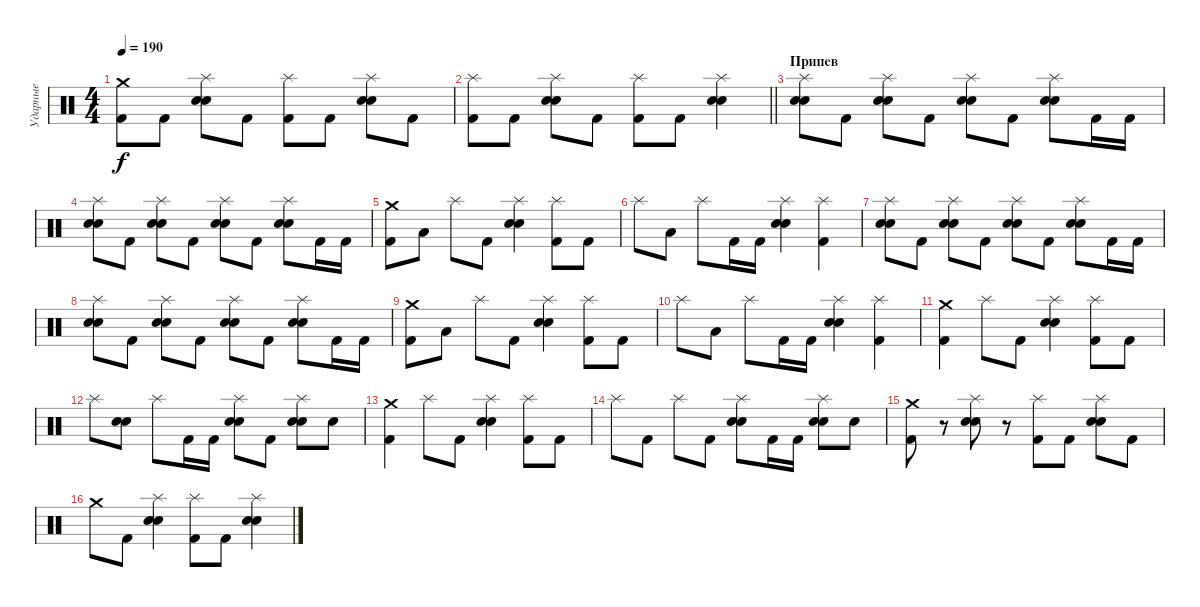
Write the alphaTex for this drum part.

\track ("Ударные" "Ударные") {instrument percussion}
\staff {score}
\articulation defaults
\ts (4 4)
\tempo 190
\clef neutral
\ks c
("Crash medium (hit)" "Kick (hit) 2").8{dy f} "Kick (hit) 2".8 ("Splash (hit)" "Electric Snare (hit)" "Snare (hit) 2").8 "Kick (hit) 2".8 ("Splash (hit)" "Kick (hit) 2").8 "Kick (hit) 2".8 ("Splash (hit)" "Electric Snare (hit)" "Snare (hit) 2").8 "Kick (hit) 2".8 |
\barLineRight lightlight
("Splash (hit)" "Kick (hit) 2").8 "Kick (hit) 2".8 ("Splash (hit)" "Electric Snare (hit)" "Snare (hit) 2").8 "Kick (hit) 2".8 ("Splash (hit)" "Kick (hit) 2").8 "Kick (hit) 2".8 ("Splash (hit)" "Electric Snare (hit)" "Snare (hit) 2").4 |
\section ("" "Припев")
("Splash (hit)" "Electric Snare (hit)" "Snare (hit) 2").8 "Kick (hit) 2".8 ("Splash (hit)" "Electric Snare (hit)" "Snare (hit) 2").8 "Kick (hit) 2".8 ("Splash (hit)" "Electric Snare (hit)" "Snare (hit) 2").8 "Kick (hit) 2".8 ("Splash (hit)" "Electric Snare (hit)" "Snare (hit) 2").8 "Kick (hit) 2".16 "Kick (hit) 2".16 |
("Splash (hit)" "Electric Snare (hit)" "Snare (hit) 2").8 "Kick (hit) 2".8 ("Splash (hit)" "Electric Snare (hit)" "Snare (hit) 2").8 "Kick (hit) 2".8 ("Splash (hit)" "Electric Snare (hit)" "Snare (hit) 2").8 "Kick (hit) 2".8 ("Splash (hit)" "Electric Snare (hit)" "Snare (hit) 2").8 "Kick (hit) 2".16 "Kick (hit) 2".16 |
("Crash medium (hit)" "Kick (hit) 2").8 "Low Tom (hit)".8 "Splash (hit)".8 "Kick (hit) 2".8 ("Splash (hit)" "Electric Snare (hit)" "Snare (hit) 2").4 ("Splash (hit)" "Kick (hit) 2").8 "Kick (hit) 2".8 |
"Splash (hit)".8 "Low Tom (hit)".8 "Splash (hit)".8 "Kick (hit) 2".16 "Kick (hit) 2".16 ("Splash (hit)" "Electric Snare (hit)" "Snare (hit) 2").4 ("Splash (hit)" "Kick (hit) 2").4 |
("Splash (hit)" "Electric Snare (hit)" "Snare (hit) 2").8 "Kick (hit) 2".8 ("Splash (hit)" "Electric Snare (hit)" "Snare (hit) 2").8 "Kick (hit) 2".8 ("Splash (hit)" "Electric Snare (hit)" "Snare (hit) 2").8 "Kick (hit) 2".8 ("Splash (hit)" "Electric Snare (hit)" "Snare (hit) 2").8 "Kick (hit) 2".16 "Kick (hit) 2".16 |
("Splash (hit)" "Electric Snare (hit)" "Snare (hit) 2").8 "Kick (hit) 2".8 ("Splash (hit)" "Electric Snare (hit)" "Snare (hit) 2").8 "Kick (hit) 2".8 ("Splash (hit)" "Electric Snare (hit)" "Snare (hit) 2").8 "Kick (hit) 2".8 ("Splash (hit)" "Electric Snare (hit)" "Snare (hit) 2").8 "Kick (hit) 2".16 "Kick (hit) 2".16 |
("Crash medium (hit)" "Kick (hit) 2").8 "Low Tom (hit)".8 "Splash (hit)".8 "Kick (hit) 2".8 ("Splash (hit)" "Electric Snare (hit)" "Snare (hit) 2").4 ("Splash (hit)" "Kick (hit) 2").8 "Kick (hit) 2".8 |
"Splash (hit)".8 "Low Tom (hit)".8 "Splash (hit)".8 "Kick (hit) 2".16 "Kick (hit) 2".16 ("Splash (hit)" "Electric Snare (hit)" "Snare (hit) 2").4 ("Splash (hit)" "Kick (hit) 2").4 |
("Crash medium (hit)" "Kick (hit) 2").4 "Splash (hit)".8 "Kick (hit) 2".8 ("Splash (hit)" "Electric Snare (hit)" "Snare (hit) 2").4 ("Splash (hit)" "Kick (hit) 2").8 "Kick (hit) 2".8 |
"Splash (hit)".8 ("Electric Snare (hit)" "Snare (hit) 2").8 "Splash (hit)".8 "Kick (hit) 2".16 "Kick (hit) 2".16 ("Splash (hit)" "Electric Snare (hit)" "Snare (hit) 2").8 "Kick (hit) 2".8 ("Splash (hit)" "Electric Snare (hit)" "Snare (hit) 2").8 "Electric Snare (hit)".8 |
("Crash medium (hit)" "Kick (hit) 2").4 "Splash (hit)".8 "Kick (hit) 2".8 ("Splash (hit)" "Electric Snare (hit)" "Snare (hit) 2").4 ("Splash (hit)" "Kick (hit) 2").8 "Kick (hit) 2".8 |
"Splash (hit)".8 "Kick (hit) 2".8 "Splash (hit)".8 "Kick (hit) 2".8 ("Splash (hit)" "Electric Snare (hit)" "Snare (hit) 2").8 "Kick (hit) 2".16 "Kick (hit) 2".16 ("Splash (hit)" "Electric Snare (hit)" "Snare (hit) 2").8 "Electric Snare (hit)".8 |
("Crash medium (hit)" "Kick (hit) 2").8 r.8 ("Splash (hit)" "Electric Snare (hit)" "Snare (hit) 2").8 r.8 ("Splash (hit)" "Kick (hit) 2").8 "Kick (hit) 2".8 ("Splash (hit)" "Electric Snare (hit)" "Snare (hit) 2").8 "Kick (hit) 2".8 |
"Crash medium (hit)".8 "Kick (hit) 2".8 ("Splash (hit)" "Electric Snare (hit)" "Snare (hit) 2").4 ("Splash (hit)" "Kick (hit) 2").8 "Kick (hit) 2".8 ("Splash (hit)" "Electric Snare (hit)" "Snare (hit) 2").4
